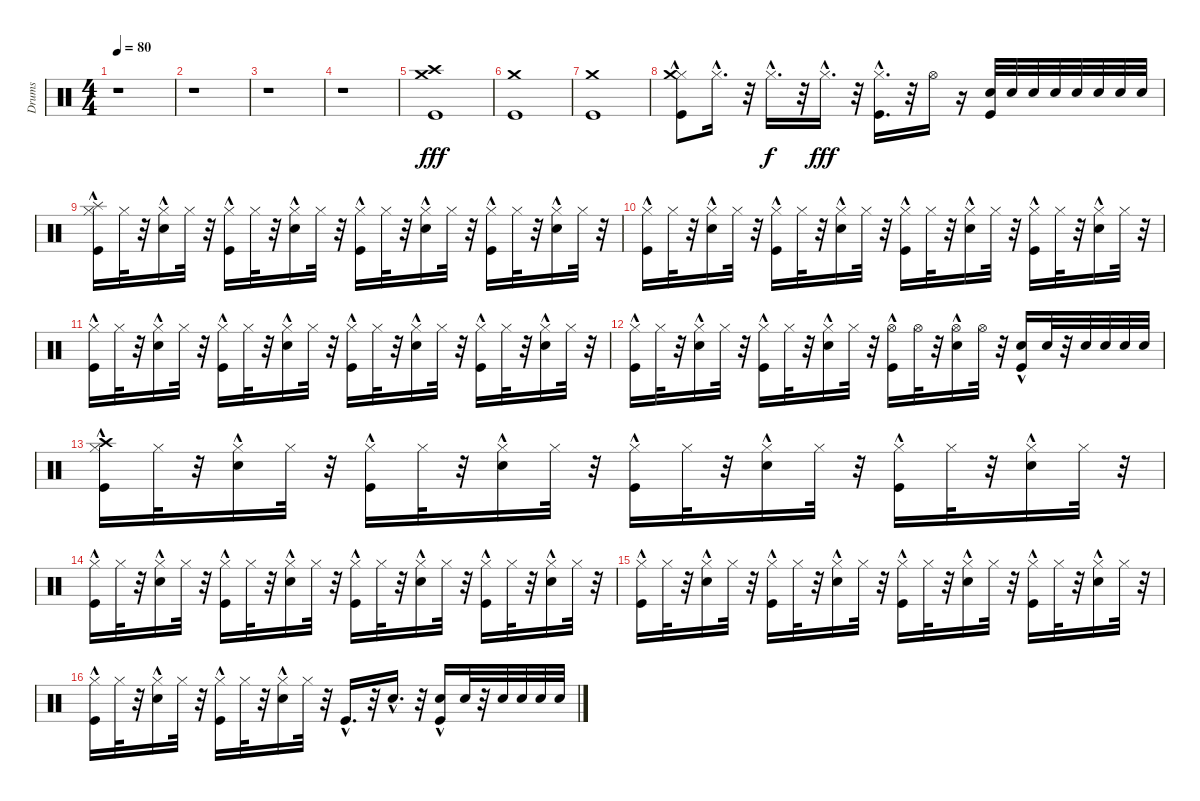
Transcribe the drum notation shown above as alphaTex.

\track ("Drums" "Drums") {instrument percussion}
\staff {score}
\articulation defaults
\ts (4 4)
\tempo 80
\clef neutral
\ks c
r.1{dy fff} |
r.1 |
r.1 |
r.1 |
("Crash high (hit)" "Kick (hit)" "Crash medium (hit)").1 |
("Kick (hit)" "Crash medium (hit)").1 |
("Kick (hit)" "Crash medium (hit)").1 |
("Hi-Hat (closed)"{hac} "Kick (hit)" "Crash medium (hit)").8 "Hi-Hat (closed)"{hac}.16{d} r.32 "Hi-Hat (closed)"{hac}.16{d dy f} r.32 "Hi-Hat (closed)"{hac}.16{d dy fff} r.32 ("Kick (hit)" "Hi-Hat (closed)"{hac}).16{d} r.32 "Hi-Hat (open)".16 r.16 ("Kick (hit)" "Snare (hit) 2").32 "Snare (hit) 2".32 "Snare (hit) 2".32 "Snare (hit) 2".32 "Snare (hit) 2".32 "Snare (hit) 2".32 "Snare (hit) 2".32 "Snare (hit) 2".32 |
("Splash (hit)" "Kick (hit)"{hac} "Hi-Hat (closed)").16 "Hi-Hat (closed)".32 r.32 ("Snare (hit) 2"{hac} "Hi-Hat (closed)").16 "Hi-Hat (closed)".32 r.32 ("Hi-Hat (closed)" "Kick (hit)"{hac}).16 "Hi-Hat (closed)".32 r.32 ("Snare (hit) 2"{hac} "Hi-Hat (closed)").16 "Hi-Hat (closed)".32 r.32 ("Kick (hit)"{hac} "Hi-Hat (closed)").16 "Hi-Hat (closed)".32 r.32 ("Snare (hit) 2"{hac} "Hi-Hat (closed)").16 "Hi-Hat (closed)".32 r.32 ("Hi-Hat (closed)" "Kick (hit)"{hac}).16 "Hi-Hat (closed)".32 r.32 ("Snare (hit) 2"{hac} "Hi-Hat (closed)").16 "Hi-Hat (closed)".32 r.32 |
("Kick (hit)"{hac} "Hi-Hat (closed)").16 "Hi-Hat (closed)".32 r.32 ("Snare (hit) 2"{hac} "Hi-Hat (closed)").16 "Hi-Hat (closed)".32 r.32 ("Hi-Hat (closed)" "Kick (hit)"{hac}).16 "Hi-Hat (closed)".32 r.32 ("Snare (hit) 2"{hac} "Hi-Hat (closed)").16 "Hi-Hat (closed)".32 r.32 ("Hi-Hat (closed)" "Kick (hit)"{hac}).16 "Hi-Hat (closed)".32 r.32 ("Snare (hit) 2"{hac} "Hi-Hat (closed)").16 "Hi-Hat (closed)".32 r.32 ("Kick (hit)"{hac} "Hi-Hat (closed)").16 "Hi-Hat (closed)".32 r.32 ("Snare (hit) 2"{hac} "Hi-Hat (closed)").16 "Hi-Hat (closed)".32 r.32 |
("Kick (hit)"{hac} "Hi-Hat (closed)").16 "Hi-Hat (closed)".32 r.32 ("Snare (hit) 2"{hac} "Hi-Hat (closed)").16 "Hi-Hat (closed)".32 r.32 ("Hi-Hat (closed)" "Kick (hit)"{hac}).16 "Hi-Hat (closed)".32 r.32 ("Snare (hit) 2"{hac} "Hi-Hat (closed)").16 "Hi-Hat (closed)".32 r.32 ("Kick (hit)"{hac} "Hi-Hat (closed)").16 "Hi-Hat (closed)".32 r.32 ("Snare (hit) 2"{hac} "Hi-Hat (closed)").16 "Hi-Hat (closed)".32 r.32 ("Hi-Hat (closed)" "Kick (hit)"{hac}).16 "Hi-Hat (closed)".32 r.32 ("Snare (hit) 2"{hac} "Hi-Hat (closed)").16 "Hi-Hat (closed)".32 r.32 |
("Kick (hit)"{hac} "Hi-Hat (closed)").16 "Hi-Hat (closed)".32 r.32 ("Snare (hit) 2"{hac} "Hi-Hat (closed)").16 "Hi-Hat (closed)".32 r.32 ("Hi-Hat (closed)" "Kick (hit)"{hac}).16 "Hi-Hat (closed)".32 r.32 ("Snare (hit) 2"{hac} "Hi-Hat (closed)").16 "Hi-Hat (closed)".32 r.32 ("Kick (hit)"{hac} "Hi-Hat (open)").16 "Hi-Hat (open)".32 r.32 ("Hi-Hat (open)" "Snare (hit) 2"{hac}).16 "Hi-Hat (open)".32 r.32 ("Kick (hit)"{hac} "Snare (hit) 2").16 "Snare (hit) 2".32 r.32 "Snare (hit) 2".32 "Snare (hit) 2".32 "Snare (hit) 2".32 "Snare (hit) 2".32 |
("Kick (hit)"{hac} "Hi-Hat (closed)" "Crash high (hit)").16 "Hi-Hat (closed)".32 r.32 ("Snare (hit) 2"{hac} "Hi-Hat (closed)").16 "Hi-Hat (closed)".32 r.32 ("Hi-Hat (closed)" "Kick (hit)"{hac}).16 "Hi-Hat (closed)".32 r.32 ("Snare (hit) 2"{hac} "Hi-Hat (closed)").16 "Hi-Hat (closed)".32 r.32 ("Kick (hit)"{hac} "Hi-Hat (closed)").16 "Hi-Hat (closed)".32 r.32 ("Hi-Hat (closed)" "Snare (hit) 2"{hac}).16 "Hi-Hat (closed)".32 r.32 ("Hi-Hat (closed)" "Kick (hit)"{hac}).16 "Hi-Hat (closed)".32 r.32 ("Hi-Hat (closed)" "Snare (hit) 2"{hac}).16 "Hi-Hat (closed)".32 r.32 |
("Kick (hit)"{hac} "Hi-Hat (closed)").16 "Hi-Hat (closed)".32 r.32 ("Snare (hit) 2"{hac} "Hi-Hat (closed)").16 "Hi-Hat (closed)".32 r.32 ("Kick (hit)"{hac} "Hi-Hat (closed)").16 "Hi-Hat (closed)".32 r.32 ("Snare (hit) 2"{hac} "Hi-Hat (closed)").16 "Hi-Hat (closed)".32 r.32 ("Kick (hit)"{hac} "Hi-Hat (closed)").16 "Hi-Hat (closed)".32 r.32 ("Hi-Hat (closed)" "Snare (hit) 2"{hac}).16 "Hi-Hat (closed)".32 r.32 ("Kick (hit)"{hac} "Hi-Hat (closed)").16 "Hi-Hat (closed)".32 r.32 ("Hi-Hat (closed)" "Snare (hit) 2"{hac}).16 "Hi-Hat (closed)".32 r.32 |
("Kick (hit)"{hac} "Hi-Hat (closed)").16 "Hi-Hat (closed)".32 r.32 ("Hi-Hat (closed)" "Snare (hit) 2"{hac}).16 "Hi-Hat (closed)".32 r.32 ("Hi-Hat (closed)" "Kick (hit)"{hac}).16 "Hi-Hat (closed)".32 r.32 ("Snare (hit) 2"{hac} "Hi-Hat (closed)").16 "Hi-Hat (closed)".32 r.32 ("Kick (hit)"{hac} "Hi-Hat (closed)").16 "Hi-Hat (closed)".32 r.32 ("Snare (hit) 2"{hac} "Hi-Hat (closed)").16 "Hi-Hat (closed)".32 r.32 ("Kick (hit)"{hac} "Hi-Hat (closed)").16 "Hi-Hat (closed)".32 r.32 ("Snare (hit) 2"{hac} "Hi-Hat (closed)").16 "Hi-Hat (closed)".32 r.32 |
("Hi-Hat (closed)" "Kick (hit)"{hac}).16 "Hi-Hat (closed)".32 r.32 ("Snare (hit) 2"{hac} "Hi-Hat (closed)").16 "Hi-Hat (closed)".32 r.32 ("Hi-Hat (closed)" "Kick (hit)"{hac}).16 "Hi-Hat (closed)".32 r.32 ("Hi-Hat (closed)" "Snare (hit) 2"{hac}).16 "Hi-Hat (closed)".32 r.32 "Kick (hit)"{hac}.16{d} r.32 "Snare (hit) 2"{hac}.16{d} r.32 ("Kick (hit)"{hac} "Snare (hit) 2").16 "Snare (hit) 2".32 r.32 "Snare (hit) 2".32 "Snare (hit) 2".32 "Snare (hit) 2".32 "Snare (hit) 2".32
